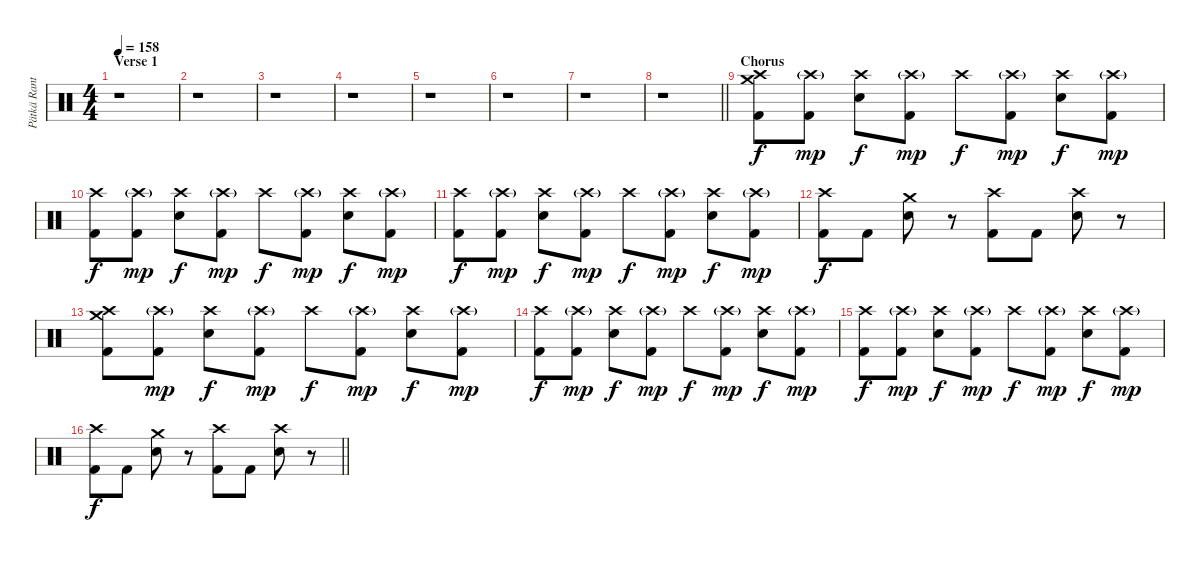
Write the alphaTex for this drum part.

\track ("Pätkä Rantala (Drums)" "Pätkä Rant") {instrument percussion}
\staff {score}
\articulation defaults
\ts (4 4)
\section ("" "Verse 1")
\tempo 158
\clef neutral
\ks c
r.1{dy f} |
r.1 |
r.1 |
r.1 |
r.1 |
r.1 |
r.1 |
\barLineRight lightlight
r.1 |
\section ("" "Chorus")
("Crash medium (hit)" "Crash high (hit)" "Kick (hit) 2").8 ("Crash high (hit)"{g} "Kick (hit) 2").8{dy mp} ("Crash high (hit)" "Snare (hit) 2").8{dy f} ("Crash high (hit)"{g} "Kick (hit) 2").8{dy mp} "Crash high (hit)".8{dy f} ("Crash high (hit)"{g} "Kick (hit) 2").8{dy mp} ("Crash high (hit)" "Snare (hit) 2").8{dy f} ("Crash high (hit)"{g} "Kick (hit) 2").8{dy mp} |
("Crash high (hit)" "Kick (hit) 2").8{dy f} ("Crash high (hit)"{g} "Kick (hit) 2").8{dy mp} ("Crash high (hit)" "Snare (hit) 2").8{dy f} ("Crash high (hit)"{g} "Kick (hit) 2").8{dy mp} "Crash high (hit)".8{dy f} ("Crash high (hit)"{g} "Kick (hit) 2").8{dy mp} ("Crash high (hit)" "Snare (hit) 2").8{dy f} ("Crash high (hit)"{g} "Kick (hit) 2").8{dy mp} |
("Crash high (hit)" "Kick (hit) 2").8{dy f} ("Crash high (hit)"{g} "Kick (hit) 2").8{dy mp} ("Crash high (hit)" "Snare (hit) 2").8{dy f} ("Crash high (hit)"{g} "Kick (hit) 2").8{dy mp} "Crash high (hit)".8{dy f} ("Crash high (hit)"{g} "Kick (hit) 2").8{dy mp} ("Crash high (hit)" "Snare (hit) 2").8{dy f} ("Crash high (hit)"{g} "Kick (hit) 2").8{dy mp} |
("Crash high (hit)" "Kick (hit) 2").8{dy f} "Kick (hit) 2".8 ("Crash medium (hit)" "Snare (hit) 2").8 r.8 ("Crash high (hit)" "Kick (hit) 2").8 "Kick (hit) 2".8 ("Crash high (hit)" "Snare (hit) 2").8 r.8 |
("Crash medium (hit)" "Crash high (hit)" "Kick (hit) 2").8 ("Crash high (hit)"{g} "Kick (hit) 2").8{dy mp} ("Crash high (hit)" "Snare (hit) 2").8{dy f} ("Crash high (hit)"{g} "Kick (hit) 2").8{dy mp} "Crash high (hit)".8{dy f} ("Crash high (hit)"{g} "Kick (hit) 2").8{dy mp} ("Crash high (hit)" "Snare (hit) 2").8{dy f} ("Crash high (hit)"{g} "Kick (hit) 2").8{dy mp} |
("Crash high (hit)" "Kick (hit) 2").8{dy f} ("Crash high (hit)"{g} "Kick (hit) 2").8{dy mp} ("Crash high (hit)" "Snare (hit) 2").8{dy f} ("Crash high (hit)"{g} "Kick (hit) 2").8{dy mp} "Crash high (hit)".8{dy f} ("Crash high (hit)"{g} "Kick (hit) 2").8{dy mp} ("Crash high (hit)" "Snare (hit) 2").8{dy f} ("Crash high (hit)"{g} "Kick (hit) 2").8{dy mp} |
("Crash high (hit)" "Kick (hit) 2").8{dy f} ("Crash high (hit)"{g} "Kick (hit) 2").8{dy mp} ("Crash high (hit)" "Snare (hit) 2").8{dy f} ("Crash high (hit)"{g} "Kick (hit) 2").8{dy mp} "Crash high (hit)".8{dy f} ("Crash high (hit)"{g} "Kick (hit) 2").8{dy mp} ("Crash high (hit)" "Snare (hit) 2").8{dy f} ("Crash high (hit)"{g} "Kick (hit) 2").8{dy mp} |
\barLineRight lightlight
("Crash high (hit)" "Kick (hit) 2").8{dy f} "Kick (hit) 2".8 ("Crash medium (hit)" "Snare (hit) 2").8 r.8 ("Crash high (hit)" "Kick (hit) 2").8 "Kick (hit) 2".8 ("Crash high (hit)" "Snare (hit) 2").8 r.8
